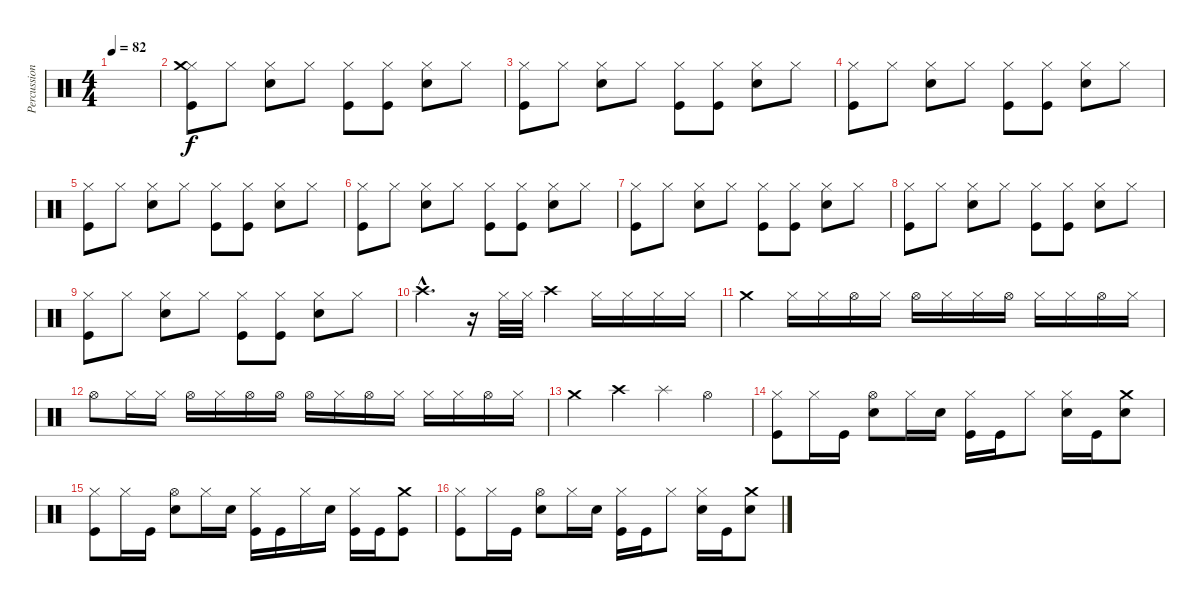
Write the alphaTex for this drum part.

\track ("Percussion" "Percussion") {instrument percussion}
\staff {score}
\articulation defaults
\ts (4 4)
\tempo 82
\clef neutral
\ks c
|
("Hi-Hat (closed)" "Crash medium (hit)" "Kick (hit)").8 "Hi-Hat (closed)".8 ("Hi-Hat (closed)" "Snare (hit) 2").8 "Hi-Hat (closed)".8 ("Hi-Hat (closed)" "Kick (hit)").8 ("Hi-Hat (closed)" "Kick (hit)").8 ("Hi-Hat (closed)" "Snare (hit) 2").8 "Hi-Hat (closed)".8 |
("Hi-Hat (closed)" "Kick (hit)").8 "Hi-Hat (closed)".8 ("Hi-Hat (closed)" "Snare (hit) 2").8 "Hi-Hat (closed)".8 ("Hi-Hat (closed)" "Kick (hit)").8 ("Hi-Hat (closed)" "Kick (hit)").8 ("Hi-Hat (closed)" "Snare (hit) 2").8 "Hi-Hat (closed)".8 |
("Hi-Hat (closed)" "Kick (hit)").8 "Hi-Hat (closed)".8 ("Hi-Hat (closed)" "Snare (hit) 2").8 "Hi-Hat (closed)".8 ("Hi-Hat (closed)" "Kick (hit)").8 ("Hi-Hat (closed)" "Kick (hit)").8 ("Hi-Hat (closed)" "Snare (hit) 2").8 "Hi-Hat (closed)".8 |
("Hi-Hat (closed)" "Kick (hit)").8 "Hi-Hat (closed)".8 ("Hi-Hat (closed)" "Snare (hit) 2").8 "Hi-Hat (closed)".8 ("Hi-Hat (closed)" "Kick (hit)").8 ("Hi-Hat (closed)" "Kick (hit)").8 ("Hi-Hat (closed)" "Snare (hit) 2").8 "Hi-Hat (closed)".8 |
("Hi-Hat (closed)" "Kick (hit)").8 "Hi-Hat (closed)".8 ("Hi-Hat (closed)" "Snare (hit) 2").8 "Hi-Hat (closed)".8 ("Hi-Hat (closed)" "Kick (hit)").8 ("Hi-Hat (closed)" "Kick (hit)").8 ("Hi-Hat (closed)" "Snare (hit) 2").8 "Hi-Hat (closed)".8 |
("Hi-Hat (closed)" "Kick (hit)").8 "Hi-Hat (closed)".8 ("Hi-Hat (closed)" "Snare (hit) 2").8 "Hi-Hat (closed)".8 ("Hi-Hat (closed)" "Kick (hit)").8 ("Hi-Hat (closed)" "Kick (hit)").8 ("Hi-Hat (closed)" "Snare (hit) 2").8 "Hi-Hat (closed)".8 |
("Hi-Hat (closed)" "Kick (hit)").8 "Hi-Hat (closed)".8 ("Hi-Hat (closed)" "Snare (hit) 2").8 "Hi-Hat (closed)".8 ("Hi-Hat (closed)" "Kick (hit)").8 ("Hi-Hat (closed)" "Kick (hit)").8 ("Hi-Hat (closed)" "Snare (hit) 2").8 "Hi-Hat (closed)".8 |
("Hi-Hat (closed)" "Kick (hit)").8 "Hi-Hat (closed)".8 ("Hi-Hat (closed)" "Snare (hit) 2").8 "Hi-Hat (closed)".8 ("Hi-Hat (closed)" "Kick (hit)").8 ("Hi-Hat (closed)" "Kick (hit)").8 ("Hi-Hat (closed)" "Snare (hit) 2").8 "Hi-Hat (closed)".8 |
"Crash high (hit)"{hac}.4{d} r.16 "Hi-Hat (closed)".32 "Hi-Hat (closed)".32 "Crash high (hit)".4 "Hi-Hat (closed)".16 "Hi-Hat (closed)".16 "Hi-Hat (closed)".16 "Hi-Hat (closed)".16 |
"Crash medium (hit)".4 "Hi-Hat (closed)".16 "Hi-Hat (closed)".16 "Hi-Hat (open)".16 "Hi-Hat (closed)".16 "Hi-Hat (open)".16 "Hi-Hat (closed)".16 "Hi-Hat (closed)".16 "Hi-Hat (open)".16 "Hi-Hat (closed)".16 "Hi-Hat (closed)".16 "Hi-Hat (open)".16 "Hi-Hat (closed)".16 |
"Hi-Hat (open)".8 "Hi-Hat (closed)".16{balance 0} "Hi-Hat (closed)".16 "Hi-Hat (open)".16{balance 13} "Hi-Hat (closed)".16 "Hi-Hat (open)".16 "Hi-Hat (open)".16 "Hi-Hat (open)".16{balance 4} "Hi-Hat (closed)".16{balance 13} "Hi-Hat (open)".16{balance 4} "Hi-Hat (closed)".16{balance 12} "Hi-Hat (closed)".16 "Hi-Hat (closed)".16 "Hi-Hat (open)".16 "Hi-Hat (closed)".16{balance 8} |
"Crash medium (hit)".4 "Crash high (hit)".4 "Splash (hit)".4 "Hi-Hat (open)".4 |
("Hi-Hat (closed)" "Kick (hit)").8 "Hi-Hat (closed)".16 "Kick (hit)".16 ("Hi-Hat (open)" "Snare (hit) 2").8 "Hi-Hat (closed)".16 "Snare (hit) 2".16 ("Hi-Hat (closed)" "Kick (hit)").16 "Kick (hit)".16 "Hi-Hat (closed)".8 ("Hi-Hat (closed)" "Snare (hit) 2").16 "Kick (hit)".16 ("Crash medium (hit)" "Snare (hit) 2").8 |
("Hi-Hat (closed)" "Kick (hit)").8 "Hi-Hat (closed)".16 "Kick (hit)".16 ("Hi-Hat (open)" "Snare (hit) 2").8 "Hi-Hat (closed)".16 "Snare (hit) 2".16 ("Hi-Hat (closed)" "Kick (hit)").16 "Kick (hit)".16 "Hi-Hat (closed)".16 "Snare (hit) 2".16 ("Hi-Hat (closed)" "Kick (hit)").16 "Kick (hit)".16 ("Crash medium (hit)" "Kick (hit)").8 |
("Hi-Hat (closed)" "Kick (hit)").8 "Hi-Hat (closed)".16 "Kick (hit)".16 ("Hi-Hat (open)" "Snare (hit) 2").8 "Hi-Hat (closed)".16 "Snare (hit) 2".16 ("Hi-Hat (closed)" "Kick (hit)").16 "Kick (hit)".16 "Hi-Hat (closed)".8 ("Hi-Hat (closed)" "Snare (hit) 2").16 "Kick (hit)".16 ("Crash medium (hit)" "Snare (hit) 2").8
